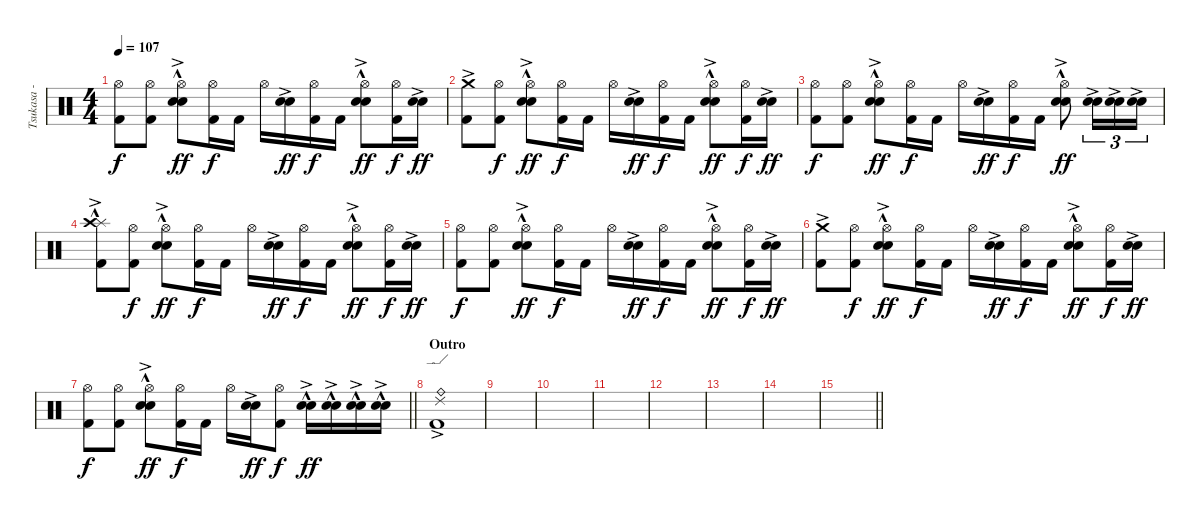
\track ("Tsukasa - Drums" "Tsukasa - ") {instrument percussion}
\staff {score}
\articulation defaults
\ts (4 4)
\tempo 107
\clef neutral
\ks c
("Hi-Hat (open)" "Kick (hit) 2").8{dy f} ("Hi-Hat (open)" "Kick (hit) 2").8 ("Hi-Hat (open)" "Electric Snare (hit)"{hac} "Snare (hit) 2"{ac}).8{dy ff} ("Hi-Hat (open)" "Kick (hit) 2").16{dy f} "Kick (hit) 2".16 "Hi-Hat (open)".16 ("Electric Snare (hit)"{ac} "Snare (hit) 2").16{dy ff} ("Hi-Hat (open)" "Kick (hit) 2").16{dy f} "Kick (hit) 2".16 ("Hi-Hat (open)" "Electric Snare (hit)"{hac} "Snare (hit) 2"{ac}).8{dy ff} ("Hi-Hat (open)" "Kick (hit) 2").16{dy f} ("Electric Snare (hit)"{ac} "Snare (hit) 2").16{dy ff} |
("Crash medium (hit)"{ac} "Kick (hit) 2").8 ("Hi-Hat (open)" "Kick (hit) 2").8{dy f} ("Hi-Hat (open)" "Electric Snare (hit)"{hac} "Snare (hit) 2"{ac}).8{dy ff} ("Hi-Hat (open)" "Kick (hit) 2").16{dy f} "Kick (hit) 2".16 "Hi-Hat (open)".16 ("Electric Snare (hit)"{ac} "Snare (hit) 2").16{dy ff} ("Hi-Hat (open)" "Kick (hit) 2").16{dy f} "Kick (hit) 2".16 ("Hi-Hat (open)" "Electric Snare (hit)"{hac} "Snare (hit) 2"{ac}).8{dy ff} ("Hi-Hat (open)" "Kick (hit) 2").16{dy f} ("Electric Snare (hit)"{ac} "Snare (hit) 2").16{dy ff} |
("Hi-Hat (open)" "Kick (hit) 2").8{dy f} ("Hi-Hat (open)" "Kick (hit) 2").8 ("Hi-Hat (open)" "Electric Snare (hit)"{hac} "Snare (hit) 2"{ac}).8{dy ff} ("Hi-Hat (open)" "Kick (hit) 2").16{dy f} "Kick (hit) 2".16 "Hi-Hat (open)".16 ("Electric Snare (hit)"{ac} "Snare (hit) 2").16{dy ff} ("Hi-Hat (open)" "Kick (hit) 2").16{dy f} "Kick (hit) 2".16 ("Hi-Hat (open)" "Electric Snare (hit)"{hac} "Snare (hit) 2"{ac}).8{dy ff} ("Electric Snare (hit)"{ac} "Snare (hit) 2"{ac}).16{tu (3 2)} ("Electric Snare (hit)"{ac} "Snare (hit) 2"{ac}).16{tu (3 2)} ("Electric Snare (hit)"{ac} "Snare (hit) 2"{ac}).16{tu (3 2)} |
("Splash (hit)"{hac} "Crash high (hit)"{ac} "Kick (hit) 2").8 ("Hi-Hat (open)" "Kick (hit) 2").8{dy f} ("Hi-Hat (open)" "Electric Snare (hit)"{hac} "Snare (hit) 2"{ac}).8{dy ff} ("Hi-Hat (open)" "Kick (hit) 2").16{dy f} "Kick (hit) 2".16 "Hi-Hat (open)".16 ("Electric Snare (hit)"{ac} "Snare (hit) 2").16{dy ff} ("Hi-Hat (open)" "Kick (hit) 2").16{dy f} "Kick (hit) 2".16 ("Hi-Hat (open)" "Electric Snare (hit)"{hac} "Snare (hit) 2"{ac}).8{dy ff} ("Hi-Hat (open)" "Kick (hit) 2").16{dy f} ("Electric Snare (hit)"{ac} "Snare (hit) 2").16{dy ff} |
("Hi-Hat (open)" "Kick (hit) 2").8{dy f} ("Hi-Hat (open)" "Kick (hit) 2").8 ("Hi-Hat (open)" "Electric Snare (hit)"{hac} "Snare (hit) 2"{ac}).8{dy ff} ("Hi-Hat (open)" "Kick (hit) 2").16{dy f} "Kick (hit) 2".16 "Hi-Hat (open)".16 ("Electric Snare (hit)"{ac} "Snare (hit) 2").16{dy ff} ("Hi-Hat (open)" "Kick (hit) 2").16{dy f} "Kick (hit) 2".16 ("Hi-Hat (open)" "Electric Snare (hit)"{hac} "Snare (hit) 2"{ac}).8{dy ff} ("Hi-Hat (open)" "Kick (hit) 2").16{dy f} ("Electric Snare (hit)"{ac} "Snare (hit) 2").16{dy ff} |
("Crash medium (hit)"{ac} "Kick (hit) 2").8 ("Hi-Hat (open)" "Kick (hit) 2").8{dy f} ("Hi-Hat (open)" "Electric Snare (hit)"{hac} "Snare (hit) 2"{ac}).8{dy ff} ("Hi-Hat (open)" "Kick (hit) 2").16{dy f} "Kick (hit) 2".16 "Hi-Hat (open)".16 ("Electric Snare (hit)"{ac} "Snare (hit) 2").16{dy ff} ("Hi-Hat (open)" "Kick (hit) 2").16{dy f} "Kick (hit) 2".16 ("Hi-Hat (open)" "Electric Snare (hit)"{hac} "Snare (hit) 2"{ac}).8{dy ff} ("Hi-Hat (open)" "Kick (hit) 2").16{dy f} ("Electric Snare (hit)"{ac} "Snare (hit) 2").16{dy ff} |
\barLineRight lightlight
("Hi-Hat (open)" "Kick (hit) 2").8{dy f} ("Hi-Hat (open)" "Kick (hit) 2").8 ("Hi-Hat (open)" "Electric Snare (hit)"{hac} "Snare (hit) 2"{ac}).8{dy ff} ("Hi-Hat (open)" "Kick (hit) 2").16{dy f} "Kick (hit) 2".16 "Hi-Hat (open)".16 ("Electric Snare (hit)"{ac} "Snare (hit) 2").16{dy ff} ("Hi-Hat (open)" "Kick (hit) 2").8{dy f} ("Electric Snare (hit)"{hac} "Snare (hit) 2"{ac}).16{dy ff} ("Electric Snare (hit)"{hac} "Snare (hit) 2"{ac}).16 ("Electric Snare (hit)"{hac} "Snare (hit) 2"{ac}).16 ("Electric Snare (hit)"{hac} "Snare (hit) 2"{ac}).16 |
\section ("" "Outro")
("Ride (bell)"{ac} "Ride (edge) 2"{ac} "Kick (hit) 2").1 |
|
|
|
|
|
|
\barLineRight lightlight
